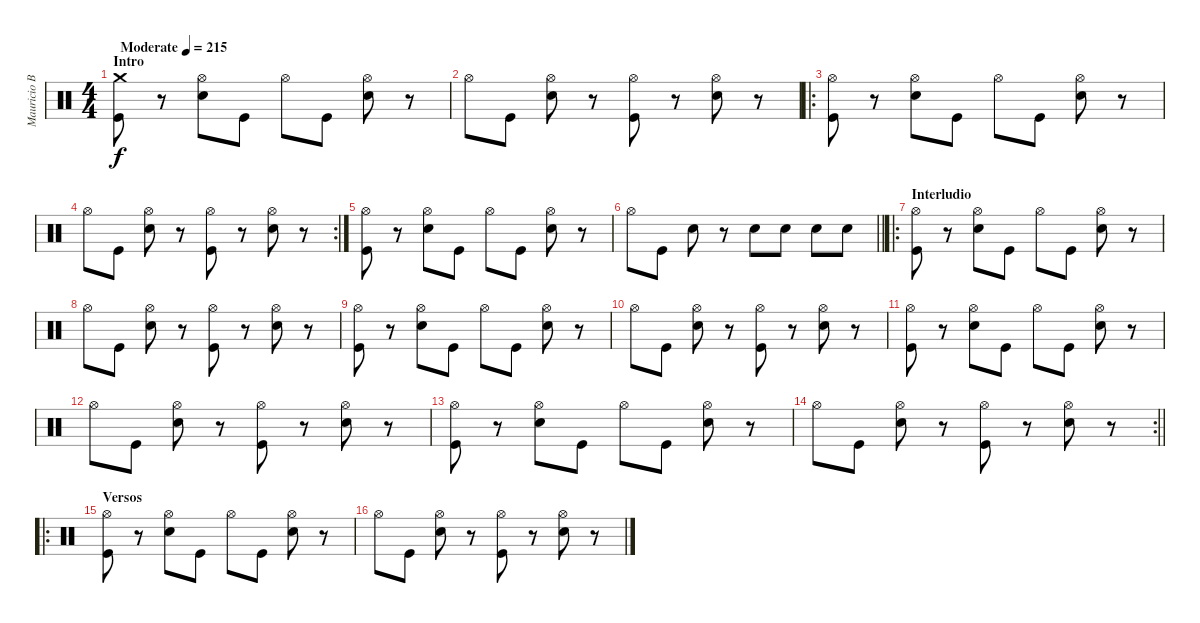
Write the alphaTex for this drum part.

\track ("Mauricio Basualto" "Mauricio B") {instrument percussion}
\staff {score}
\articulation defaults
\ts (4 4)
\section ("" "Intro")
\tempo (215 "Moderate")
\clef neutral
\ks c
("Crash medium (hit)" "Kick (hit)").8{dy f} r.8 ("Hi-Hat (open)" "Electric Snare (hit)").8 "Kick (hit)".8 "Hi-Hat (open)".8 "Kick (hit)".8 ("Hi-Hat (open)" "Electric Snare (hit)").8 r.8 |
"Hi-Hat (open)".8 "Kick (hit)".8 ("Hi-Hat (open)" "Electric Snare (hit)").8 r.8 ("Hi-Hat (open)" "Kick (hit)").8 r.8 ("Hi-Hat (open)" "Electric Snare (hit)").8 r.8 |
\ro
("Hi-Hat (open)" "Kick (hit)").8 r.8 ("Hi-Hat (open)" "Electric Snare (hit)").8 "Kick (hit)".8 "Hi-Hat (open)".8 "Kick (hit)".8 ("Hi-Hat (open)" "Electric Snare (hit)").8 r.8 |
\rc 2 "Hi-Hat (open)".8 "Kick (hit)".8
("Hi-Hat (open)" "Electric Snare (hit)").8 r.8 ("Hi-Hat (open)" "Kick (hit)").8 r.8 ("Hi-Hat (open)" "Electric Snare (hit)").8 r.8 |
("Hi-Hat (open)" "Kick (hit)").8 r.8 ("Hi-Hat (open)" "Electric Snare (hit)").8 "Kick (hit)".8 "Hi-Hat (open)".8 "Kick (hit)".8 ("Hi-Hat (open)" "Electric Snare (hit)").8 r.8 |
\barLineRight lightlight "Hi-Hat (open)".8 "Kick (hit)".8 "Electric Snare (hit)".8
r.8 "Electric Snare (hit)".8 "Electric Snare (hit)".8 "Electric Snare (hit)".8 "Electric Snare (hit)".8 |
\ro
\section ("" "Interludio")
("Hi-Hat (open)" "Kick (hit)").8 r.8 ("Hi-Hat (open)" "Electric Snare (hit)").8 "Kick (hit)".8 "Hi-Hat (open)".8 "Kick (hit)".8 ("Hi-Hat (open)" "Electric Snare (hit)").8 r.8 |
"Hi-Hat (open)".8 "Kick (hit)".8 ("Hi-Hat (open)" "Electric Snare (hit)").8 r.8 ("Hi-Hat (open)" "Kick (hit)").8 r.8 ("Hi-Hat (open)" "Electric Snare (hit)").8 r.8 |
("Hi-Hat (open)" "Kick (hit)").8 r.8 ("Hi-Hat (open)" "Electric Snare (hit)").8 "Kick (hit)".8 "Hi-Hat (open)".8 "Kick (hit)".8 ("Hi-Hat (open)" "Electric Snare (hit)").8 r.8 |
"Hi-Hat (open)".8 "Kick (hit)".8 ("Hi-Hat (open)" "Electric Snare (hit)").8 r.8 ("Hi-Hat (open)" "Kick (hit)").8 r.8 ("Hi-Hat (open)" "Electric Snare (hit)").8 r.8 |
("Hi-Hat (open)" "Kick (hit)").8 r.8 ("Hi-Hat (open)" "Electric Snare (hit)").8 "Kick (hit)".8 "Hi-Hat (open)".8 "Kick (hit)".8 ("Hi-Hat (open)" "Electric Snare (hit)").8 r.8 |
"Hi-Hat (open)".8 "Kick (hit)".8 ("Hi-Hat (open)" "Electric Snare (hit)").8 r.8 ("Hi-Hat (open)" "Kick (hit)").8 r.8 ("Hi-Hat (open)" "Electric Snare (hit)").8 r.8 |
("Hi-Hat (open)" "Kick (hit)").8 r.8 ("Hi-Hat (open)" "Electric Snare (hit)").8 "Kick (hit)".8 "Hi-Hat (open)".8 "Kick (hit)".8 ("Hi-Hat (open)" "Electric Snare (hit)").8 r.8 |
\rc 2
\barLineRight lightlight "Hi-Hat (open)".8 "Kick (hit)".8
("Hi-Hat (open)" "Electric Snare (hit)").8 r.8 ("Hi-Hat (open)" "Kick (hit)").8 r.8 ("Hi-Hat (open)" "Electric Snare (hit)").8 r.8 |
\ro
\section ("" "Versos")
("Hi-Hat (open)" "Kick (hit)").8 r.8 ("Hi-Hat (open)" "Electric Snare (hit)").8 "Kick (hit)".8 "Hi-Hat (open)".8 "Kick (hit)".8 ("Hi-Hat (open)" "Electric Snare (hit)").8 r.8 |
"Hi-Hat (open)".8 "Kick (hit)".8 ("Hi-Hat (open)" "Electric Snare (hit)").8 r.8 ("Hi-Hat (open)" "Kick (hit)").8 r.8 ("Hi-Hat (open)" "Electric Snare (hit)").8 r.8
